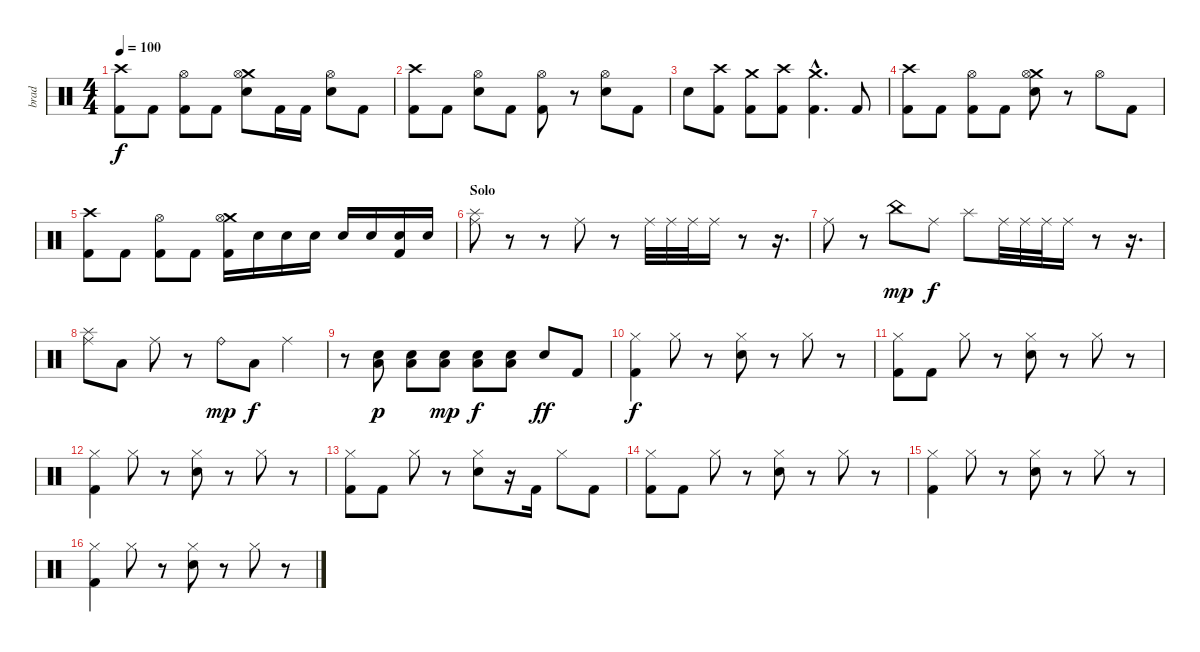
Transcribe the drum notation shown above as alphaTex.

\track ("brad" "brad") {instrument percussion}
\staff {score}
\articulation defaults
\ts (4 4)
\tempo 100
\clef neutral
\ks c
("Crash high (hit)" "Kick (hit) 2").8{dy f} "Kick (hit) 2".8 ("Hi-Hat (open)" "Kick (hit) 2").8 "Kick (hit) 2".8 ("Crash medium (hit)" "Hi-Hat (open)" "Electric Snare (hit)").8 "Kick (hit) 2".16 "Kick (hit) 2".16 ("Hi-Hat (open)" "Electric Snare (hit)").8 "Kick (hit) 2".8 |
("Crash high (hit)" "Kick (hit) 2").8 "Kick (hit) 2".8 ("Hi-Hat (open)" "Electric Snare (hit)").8 "Kick (hit) 2".8 ("Hi-Hat (open)" "Kick (hit) 2").8 r.8 ("Hi-Hat (open)" "Electric Snare (hit)").8 "Kick (hit) 2".8 |
"Electric Snare (hit)".8 ("Crash high (hit)" "Kick (hit) 2").8 ("Crash medium (hit)" "Kick (hit) 2").8 ("Crash high (hit)" "Kick (hit) 2").8 ("Crash medium (hit)"{hac} "Kick (hit) 2"{hac}).4{d} "Kick (hit) 2".8 |
("Crash high (hit)" "Kick (hit) 2").8 "Kick (hit) 2".8 ("Hi-Hat (open)" "Kick (hit) 2").8 "Kick (hit) 2".8 ("Crash medium (hit)" "Hi-Hat (open)" "Electric Snare (hit)").8 r.8 "Hi-Hat (open)".8 "Kick (hit) 2".8 |
("Crash high (hit)" "Kick (hit) 2").8 "Kick (hit) 2".8 ("Hi-Hat (open)" "Kick (hit) 2").8 "Kick (hit) 2".8 ("Crash medium (hit)" "Hi-Hat (open)" "Kick (hit) 2").16 "Electric Snare (hit)".16 "Electric Snare (hit)".16 "Electric Snare (hit)".16 "Electric Snare (hit)".16 "Electric Snare (hit)".16 ("Electric Snare (hit)" "Kick (hit) 2").16 "Electric Snare (hit)".16 |
\section ("" "Solo")
("Splash (hit)" "Ride (middle)").8 r.8 r.8 "Ride (middle)".8 r.8 "Ride (middle)".32 "Ride (middle)".32 "Ride (middle)".32 "Ride (middle)".16 r.8 r.16{d} |
"Ride (middle)".8 r.8 "China (hit)".8{dy mp} "Ride (middle)".8{dy f} "Splash (hit)".8 "Ride (middle)".32 "Ride (middle)".32 "Ride (middle)".32 "Ride (middle)".16 r.8 r.16{d} |
("Splash (hit)" "Ride (middle)").8 "Low Floor Tom (hit)".8 "Ride (middle)".8 r.8 "Ride (bell)".8{dy mp} "Low Floor Tom (hit)".8{dy f} "Ride (middle)".4 |
r.8 ("Electric Snare (hit)" "Low Floor Tom (hit)").8{dy p} ("Electric Snare (hit)" "Low Floor Tom (hit)").8 ("Electric Snare (hit)" "Low Floor Tom (hit)").8{dy mp} ("Electric Snare (hit)" "Low Floor Tom (hit)").8{dy f} ("Electric Snare (hit)" "Low Floor Tom (hit)").8 "Electric Snare (hit)".8{dy ff} "Kick (hit) 2".8 |
("Hi-Hat (closed)" "Kick (hit) 2").4{dy f} "Hi-Hat (closed)".8 r.8 ("Hi-Hat (closed)" "Electric Snare (hit)").8 r.8 "Hi-Hat (closed)".8 r.8 |
("Hi-Hat (closed)" "Kick (hit) 2").8 "Kick (hit) 2".8 "Hi-Hat (closed)".8 r.8 ("Hi-Hat (closed)" "Electric Snare (hit)").8 r.8 "Hi-Hat (closed)".8 r.8 |
("Hi-Hat (closed)" "Kick (hit) 2").4 "Hi-Hat (closed)".8 r.8 ("Hi-Hat (closed)" "Electric Snare (hit)").8 r.8 "Hi-Hat (closed)".8 r.8 |
("Hi-Hat (closed)" "Kick (hit) 2").8 "Kick (hit) 2".8 "Hi-Hat (closed)".8 r.8 ("Hi-Hat (closed)" "Electric Snare (hit)").8 r.16 "Kick (hit) 2".16 "Hi-Hat (closed)".8 "Kick (hit) 2".8 |
("Hi-Hat (closed)" "Kick (hit) 2").8 "Kick (hit) 2".8 "Hi-Hat (closed)".8 r.8 ("Hi-Hat (closed)" "Electric Snare (hit)").8 r.8 "Hi-Hat (closed)".8 r.8 |
("Hi-Hat (closed)" "Kick (hit) 2").4 "Hi-Hat (closed)".8 r.8 ("Hi-Hat (closed)" "Electric Snare (hit)").8 r.8 "Hi-Hat (closed)".8 r.8 |
("Hi-Hat (closed)" "Kick (hit) 2").4 "Hi-Hat (closed)".8 r.8 ("Hi-Hat (closed)" "Electric Snare (hit)").8 r.8 "Hi-Hat (closed)".8 r.8
